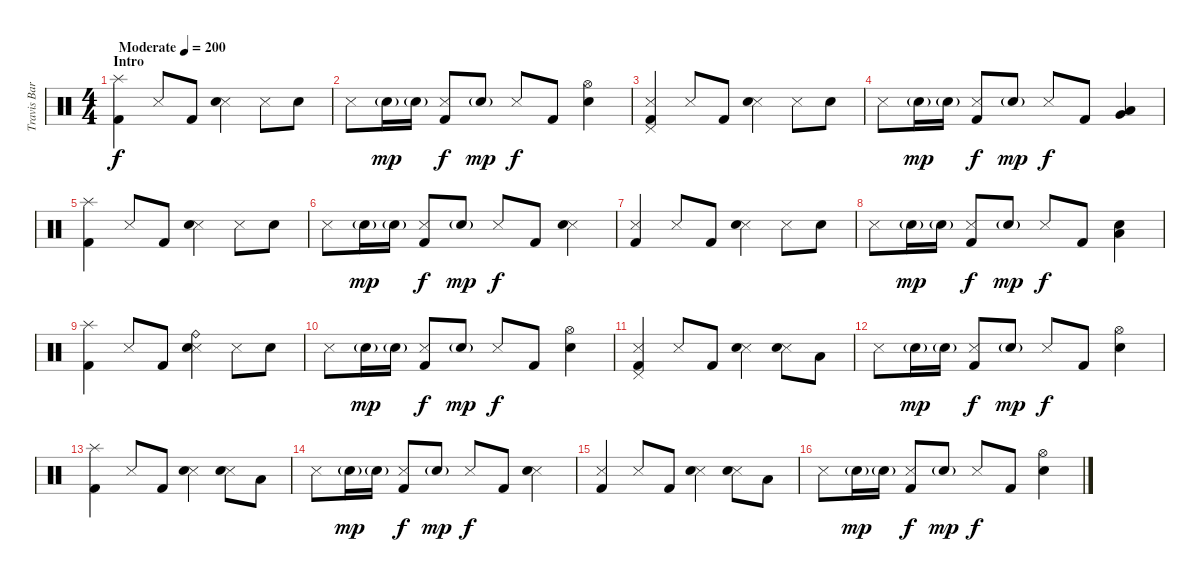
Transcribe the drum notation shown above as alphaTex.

\track ("Travis Barker - Drums" "Travis Bar") {instrument percussion}
\staff {score}
\articulation defaults
\ts (4 4)
\section ("" "Intro")
\tempo (200 "Moderate")
\clef neutral
\ks c
("Splash (hit)" "Kick (hit) 2").4{dy f} "Metronome (hit)".8 "Kick (hit) 2".8 ("Metronome (hit)" "Electric Snare (hit)").4 "Metronome (hit)".8 "Electric Snare (hit)".8 |
"Metronome (hit)".8 "Electric Snare (hit)"{g}.16{dy mp} "Electric Snare (hit)"{g}.16 ("Metronome (hit)" "Kick (hit) 2").8{dy f} "Electric Snare (hit)"{g}.8{dy mp} "Metronome (hit)".8{dy f} "Kick (hit) 2".8 ("Hi-Hat (open)" "Electric Snare (hit)").4 |
("Metronome (hit)" "Pedal Hi-Hat (hit)" "Kick (hit) 2").4 "Metronome (hit)".8 "Kick (hit) 2".8 ("Metronome (hit)" "Electric Snare (hit)").4 "Metronome (hit)".8 "Electric Snare (hit)".8 |
"Metronome (hit)".8 "Electric Snare (hit)"{g}.16{dy mp} "Electric Snare (hit)"{g}.16 ("Metronome (hit)" "Kick (hit) 2").8{dy f} "Electric Snare (hit)"{g}.8{dy mp} "Metronome (hit)".8{dy f} "Kick (hit) 2".8 ("Very Low Tom (hit)" "Low Floor Tom (hit)").4 |
("Splash (hit)" "Kick (hit) 2").4 "Metronome (hit)".8 "Kick (hit) 2".8 ("Metronome (hit)" "Electric Snare (hit)").4 "Metronome (hit)".8 "Electric Snare (hit)".8 |
"Metronome (hit)".8 "Electric Snare (hit)"{g}.16{dy mp} "Electric Snare (hit)"{g}.16 ("Metronome (hit)" "Kick (hit) 2").8{dy f} "Electric Snare (hit)"{g}.8{dy mp} "Metronome (hit)".8{dy f} "Kick (hit) 2".8 ("Metronome (hit)" "Electric Snare (hit)").4 |
("Metronome (hit)" "Kick (hit) 2").4 "Metronome (hit)".8 "Kick (hit) 2".8 ("Metronome (hit)" "Electric Snare (hit)").4 "Metronome (hit)".8 "Electric Snare (hit)".8 |
"Metronome (hit)".8 "Electric Snare (hit)"{g}.16{dy mp} "Electric Snare (hit)"{g}.16 ("Metronome (hit)" "Kick (hit) 2").8{dy f} "Electric Snare (hit)"{g}.8{dy mp} "Metronome (hit)".8{dy f} "Kick (hit) 2".8 ("Electric Snare (hit)" "Low Tom (hit)").4 |
("Splash (hit)" "Kick (hit) 2").4 "Metronome (hit)".8 "Kick (hit) 2".8 ("Metronome (hit)" "Ride (bell)" "Electric Snare (hit)").4 "Metronome (hit)".8 "Electric Snare (hit)".8 |
"Metronome (hit)".8 "Electric Snare (hit)"{g}.16{dy mp} "Electric Snare (hit)"{g}.16 ("Metronome (hit)" "Kick (hit) 2").8{dy f} "Electric Snare (hit)"{g}.8{dy mp} "Metronome (hit)".8{dy f} "Kick (hit) 2".8 ("Hi-Hat (open)" "Electric Snare (hit)").4 |
("Metronome (hit)" "Pedal Hi-Hat (hit)" "Kick (hit) 2").4 "Metronome (hit)".8 "Kick (hit) 2".8 ("Metronome (hit)" "Electric Snare (hit)").4 ("Metronome (hit)" "Electric Snare (hit)").8 "Low Tom (hit)".8 |
"Metronome (hit)".8 "Electric Snare (hit)"{g}.16{dy mp} "Electric Snare (hit)"{g}.16 ("Metronome (hit)" "Kick (hit) 2").8{dy f} "Electric Snare (hit)"{g}.8{dy mp} "Metronome (hit)".8{dy f} "Kick (hit) 2".8 ("Hi-Hat (open)" "Electric Snare (hit)").4 |
("Splash (hit)" "Kick (hit) 2").4 "Metronome (hit)".8 "Kick (hit) 2".8 ("Metronome (hit)" "Electric Snare (hit)").4 ("Metronome (hit)" "Electric Snare (hit)").8 "Low Tom (hit)".8 |
"Metronome (hit)".8 "Electric Snare (hit)"{g}.16{dy mp} "Electric Snare (hit)"{g}.16 ("Metronome (hit)" "Kick (hit) 2").8{dy f} "Electric Snare (hit)"{g}.8{dy mp} "Metronome (hit)".8{dy f} "Kick (hit) 2".8 ("Metronome (hit)" "Electric Snare (hit)").4 |
("Metronome (hit)" "Kick (hit) 2").4 "Metronome (hit)".8 "Kick (hit) 2".8 ("Metronome (hit)" "Electric Snare (hit)").4 ("Metronome (hit)" "Electric Snare (hit)").8 "Low Tom (hit)".8 |
"Metronome (hit)".8 "Electric Snare (hit)"{g}.16{dy mp} "Electric Snare (hit)"{g}.16 ("Metronome (hit)" "Kick (hit) 2").8{dy f} "Electric Snare (hit)"{g}.8{dy mp} "Metronome (hit)".8{dy f} "Kick (hit) 2".8 ("Hi-Hat (open)" "Electric Snare (hit)").4
